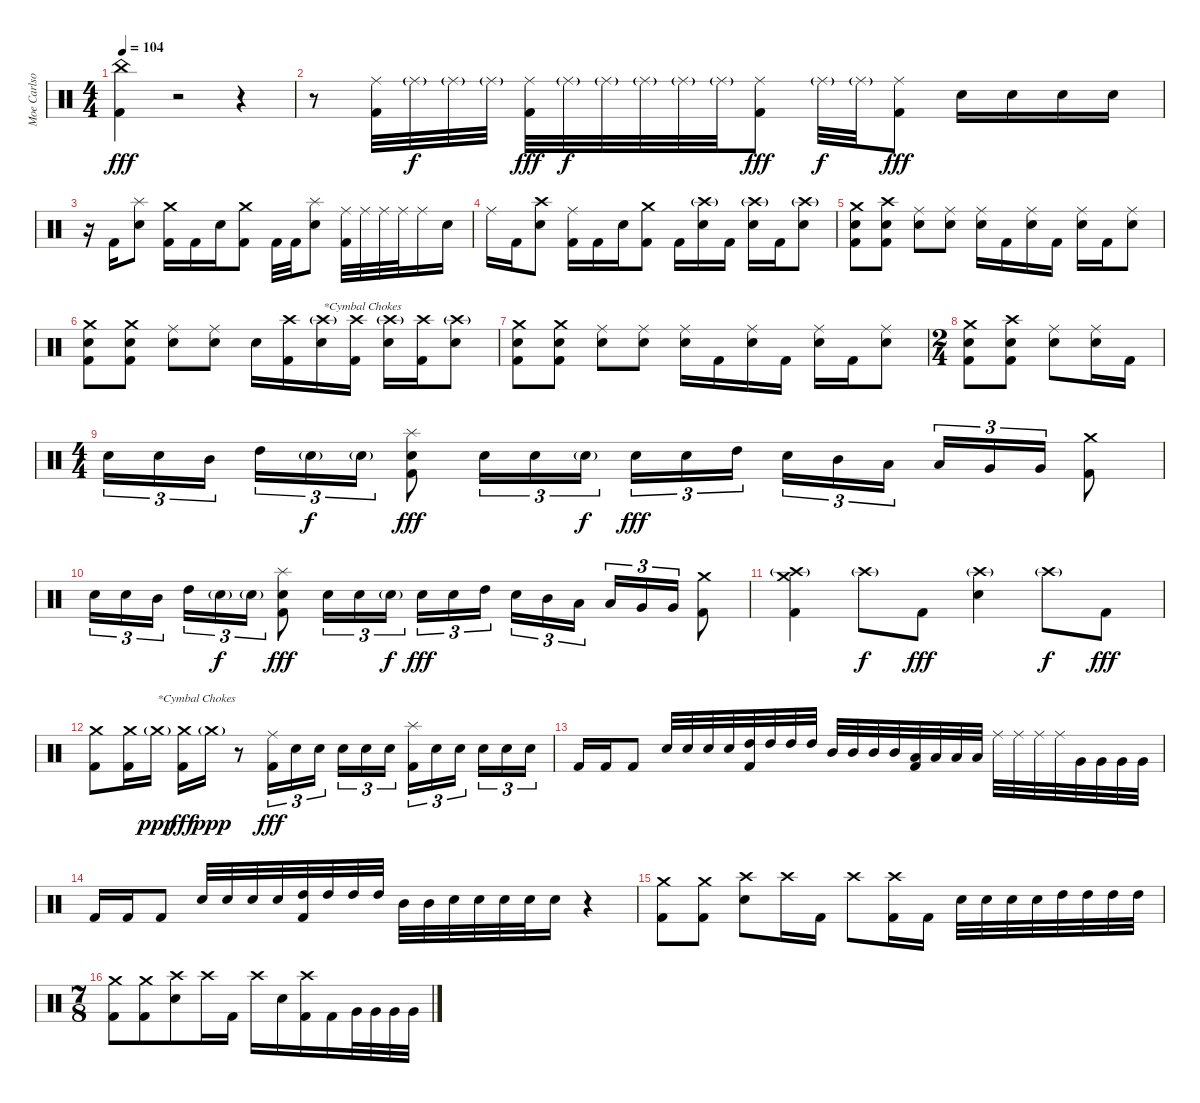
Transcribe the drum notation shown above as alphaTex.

\track ("Moe Carlson" "Moe Carlso") {instrument percussion}
\staff {score}
\articulation defaults
\ts (4 4)
\tempo 104
\clef neutral
\ks c
("China (hit)" "Kick (hit) 2").4{dy fff} r.2 r.4 |
r.8 ("Ride (middle)" "Kick (hit) 2").32 "Ride (middle)"{g}.32{dy f} "Ride (middle)"{g}.32 "Ride (middle)"{g}.32 ("Ride (middle)" "Kick (hit) 2").32{dy fff} "Ride (middle)"{g}.32{dy f} "Ride (middle)"{g}.32 "Ride (middle)"{g}.32 "Ride (middle)"{g}.32 "Ride (middle)"{g}.32 ("Ride (middle)" "Kick (hit) 2").8{dy fff} "Ride (middle)"{g}.32{dy f} "Ride (middle)"{g}.32 ("Ride (middle)" "Kick (hit) 2").8{dy fff} "Electric Snare (hit)".16 "Electric Snare (hit)".16 "Electric Snare (hit)".16 "Electric Snare (hit)".16 |
r.16 "Kick (hit) 2".16 ("Splash (hit)" "Electric Snare (hit)").8 ("Crash medium (hit)" "Kick (hit) 2").16 "Kick (hit) 2".16 "Electric Snare (hit)".16 ("Crash medium (hit)" "Kick (hit) 2").8 "Kick (hit) 2".32 "Kick (hit) 2".32 ("Splash (hit)" "Electric Snare (hit)").8 ("Ride (middle)" "Kick (hit) 2").32 "Ride (middle)".32 "Ride (middle)".32 "Ride (middle)".32 "Ride (middle)".16 "Electric Snare (hit)".16 |
"Ride (middle)".16 "Kick (hit) 2".16 ("Crash high (hit)" "Electric Snare (hit)").8 ("Ride (middle)" "Kick (hit) 2").16 "Kick (hit) 2".16 "Electric Snare (hit)".16 ("Crash medium (hit)" "Kick (hit) 2").8 "Kick (hit) 2".16 ("Crash high (hit)"{g} "Electric Snare (hit)").16 "Kick (hit) 2".16 ("Crash high (hit)"{g} "Electric Snare (hit)").16 "Kick (hit) 2".16 ("Crash high (hit)"{g} "Electric Snare (hit)").8 |
("Crash medium (hit)" "Electric Snare (hit)" "Kick (hit) 2").8 ("Crash high (hit)" "Electric Snare (hit)" "Kick (hit) 2").8 ("Ride (middle)" "Electric Snare (hit)").8 ("Ride (middle)" "Electric Snare (hit)").8 ("Ride (middle)" "Electric Snare (hit)").16 "Kick (hit) 2".16 ("Ride (middle)" "Electric Snare (hit)").16 "Kick (hit) 2".16 ("Ride (middle)" "Electric Snare (hit)").16 "Kick (hit) 2".16 ("Ride (middle)" "Electric Snare (hit)").8 |
("Crash medium (hit)" "Electric Snare (hit)" "Kick (hit) 2").8 ("Crash medium (hit)" "Electric Snare (hit)" "Kick (hit) 2").8 ("Ride (middle)" "Electric Snare (hit)").8 ("Ride (middle)" "Electric Snare (hit)").8 "Electric Snare (hit)".16 ("Crash high (hit)" "Kick (hit) 2").16 ("Crash high (hit)"{g} "Electric Snare (hit)").16{txt "*Cymbal Chokes"} ("Crash high (hit)" "Kick (hit) 2").16 ("Crash high (hit)"{g} "Electric Snare (hit)").16 ("Crash high (hit)" "Kick (hit) 2").16 ("Crash high (hit)"{g} "Electric Snare (hit)").8 |
("Crash medium (hit)" "Electric Snare (hit)" "Kick (hit) 2").8 ("Crash medium (hit)" "Electric Snare (hit)" "Kick (hit) 2").8 ("Ride (middle)" "Electric Snare (hit)").8 ("Ride (middle)" "Electric Snare (hit)").8 ("Ride (middle)" "Electric Snare (hit)").16 "Kick (hit) 2".16 ("Ride (middle)" "Electric Snare (hit)").16 "Kick (hit) 2".16 ("Ride (middle)" "Electric Snare (hit)").16 "Kick (hit) 2".16 ("Ride (middle)" "Electric Snare (hit)").8 |
\ts (2 4)
("Crash medium (hit)" "Electric Snare (hit)" "Kick (hit) 2").8 ("Crash high (hit)" "Electric Snare (hit)" "Kick (hit) 2").8 ("Ride (middle)" "Electric Snare (hit)").8 ("Ride (middle)" "Electric Snare (hit)").16 "Kick (hit) 2".16 |
\ts (4 4)
"Electric Snare (hit)".16{tu (3 2)} "Electric Snare (hit)".16{tu (3 2)} "Mid Tom (hit)".16{tu (3 2) beam splitsecondary} "High Tom (hit)".16{tu (3 2)} "Electric Snare (hit)"{g}.16{tu (3 2) dy f} "Electric Snare (hit)"{g}.16{tu (3 2)} ("Splash (hit)" "Electric Snare (hit)" "Kick (hit) 2").8{dy fff} "Electric Snare (hit)".16{tu (3 2)} "Electric Snare (hit)".16{tu (3 2)} "Electric Snare (hit)"{g}.16{tu (3 2) dy f} "Electric Snare (hit)".16{tu (3 2) dy fff} "Electric Snare (hit)".16{tu (3 2)} "High Tom (hit)".16{tu (3 2) beam splitsecondary} "Electric Snare (hit)".16{tu (3 2)} "Mid Tom (hit)".16{tu (3 2)} "Low Tom (hit)".16{tu (3 2)} "Low Tom (hit)".16{tu (3 2)} "Very Low Tom (hit)".16{tu (3 2)} "Very Low Tom (hit)".16{tu (3 2)} ("Crash medium (hit)" "Kick (hit) 2").8 |
"Electric Snare (hit)".16{tu (3 2)} "Electric Snare (hit)".16{tu (3 2)} "Mid Tom (hit)".16{tu (3 2) beam splitsecondary} "High Tom (hit)".16{tu (3 2)} "Electric Snare (hit)"{g}.16{tu (3 2) dy f} "Electric Snare (hit)"{g}.16{tu (3 2)} ("Splash (hit)" "Electric Snare (hit)" "Kick (hit) 2").8{dy fff} "Electric Snare (hit)".16{tu (3 2)} "Electric Snare (hit)".16{tu (3 2)} "Electric Snare (hit)"{g}.16{tu (3 2) dy f} "Electric Snare (hit)".16{tu (3 2) dy fff} "Electric Snare (hit)".16{tu (3 2)} "High Tom (hit)".16{tu (3 2) beam splitsecondary} "Electric Snare (hit)".16{tu (3 2)} "Mid Tom (hit)".16{tu (3 2)} "Low Tom (hit)".16{tu (3 2)} "Low Tom (hit)".16{tu (3 2)} "Very Low Tom (hit)".16{tu (3 2)} "Very Low Tom (hit)".16{tu (3 2)} ("Crash medium (hit)" "Kick (hit) 2").8 |
("Crash high (hit)"{g} "Crash medium (hit)" "Kick (hit) 2").4 "Crash high (hit)"{g}.8{dy f} "Kick (hit) 2".8{dy fff} ("Crash high (hit)"{g} "Electric Snare (hit)").4 "Crash high (hit)"{g}.8{dy f} "Kick (hit) 2".8{dy fff} |
("Crash medium (hit)" "Kick (hit) 2").8 ("Crash medium (hit)" "Kick (hit) 2").16 "Crash medium (hit)"{g}.16{txt "*Cymbal Chokes" dy ppp} ("Crash medium (hit)" "Kick (hit) 2").16{dy fff} "Crash medium (hit)"{g}.16{dy ppp} r.8 ("Ride (middle)" "Kick (hit) 2").16{tu (3 2) dy fff} "Electric Snare (hit)".16{tu (3 2)} "Electric Snare (hit)".16{tu (3 2) beam splitsecondary} "Electric Snare (hit)".16{tu (3 2)} "Electric Snare (hit)".16{tu (3 2)} "Electric Snare (hit)".16{tu (3 2)} ("Splash (hit)" "Kick (hit) 2").16{tu (3 2)} "Electric Snare (hit)".16{tu (3 2)} "Electric Snare (hit)".16{tu (3 2) beam splitsecondary} "Electric Snare (hit)".16{tu (3 2)} "Electric Snare (hit)".16{tu (3 2)} "Electric Snare (hit)".16{tu (3 2)} |
"Kick (hit) 2".16 "Kick (hit) 2".16 "Kick (hit) 2".8 "Electric Snare (hit)".32 "Electric Snare (hit)".32 "Electric Snare (hit)".32 "Electric Snare (hit)".32 ("High Tom (hit)" "Kick (hit) 2").32 "High Tom (hit)".32 "High Tom (hit)".32 "High Tom (hit)".32 "Mid Tom (hit)".32 "Mid Tom (hit)".32 "Mid Tom (hit)".32 "Mid Tom (hit)".32 ("Low Tom (hit)" "Kick (hit) 2").32 "Low Tom (hit)".32 "Low Tom (hit)".32 "Low Tom (hit)".32 "Ride (middle)".32 "Ride (middle)".32 "Ride (middle)".32 "Ride (middle)".32 "Very Low Tom (hit)".32 "Very Low Tom (hit)".32 "Very Low Tom (hit)".32 "Very Low Tom (hit)".32 |
"Kick (hit) 2".16 "Kick (hit) 2".16 "Kick (hit) 2".8 "Electric Snare (hit)".32 "Electric Snare (hit)".32 "Electric Snare (hit)".32 "Electric Snare (hit)".32 ("High Tom (hit)" "Kick (hit) 2").32 "High Tom (hit)".32 "High Tom (hit)".32 "High Tom (hit)".32 "Mid Tom (hit)".32 "Mid Tom (hit)".32 "Electric Snare (hit)".32 "Electric Snare (hit)".32 "Electric Snare (hit)".32 "Electric Snare (hit)".32 "Electric Snare (hit)".16 r.4 |
("Crash medium (hit)" "Kick (hit) 2").8 ("Crash medium (hit)" "Kick (hit) 2").8 ("Crash high (hit)" "Electric Snare (hit)").8 "Crash high (hit)".16 "Kick (hit) 2".16 "Crash high (hit)".8 ("Crash high (hit)" "Kick (hit) 2").16 "Kick (hit) 2".16 "Electric Snare (hit)".32 "Electric Snare (hit)".32 "Electric Snare (hit)".32 "Electric Snare (hit)".32 "High Tom (hit)".32 "High Tom (hit)".32 "High Tom (hit)".32 "High Tom (hit)".32 |
\ts (7 8)
("Crash medium (hit)" "Kick (hit) 2").8 ("Crash medium (hit)" "Kick (hit) 2").8 ("Crash high (hit)" "Electric Snare (hit)").8 "Crash high (hit)".16 "Kick (hit) 2".16 "Crash high (hit)".16 "Electric Snare (hit)".16 ("Crash high (hit)" "Kick (hit) 2").16 "Kick (hit) 2".16 "Very Low Tom (hit)".32 "Very Low Tom (hit)".32 "Very Low Tom (hit)".32 "Very Low Tom (hit)".32
